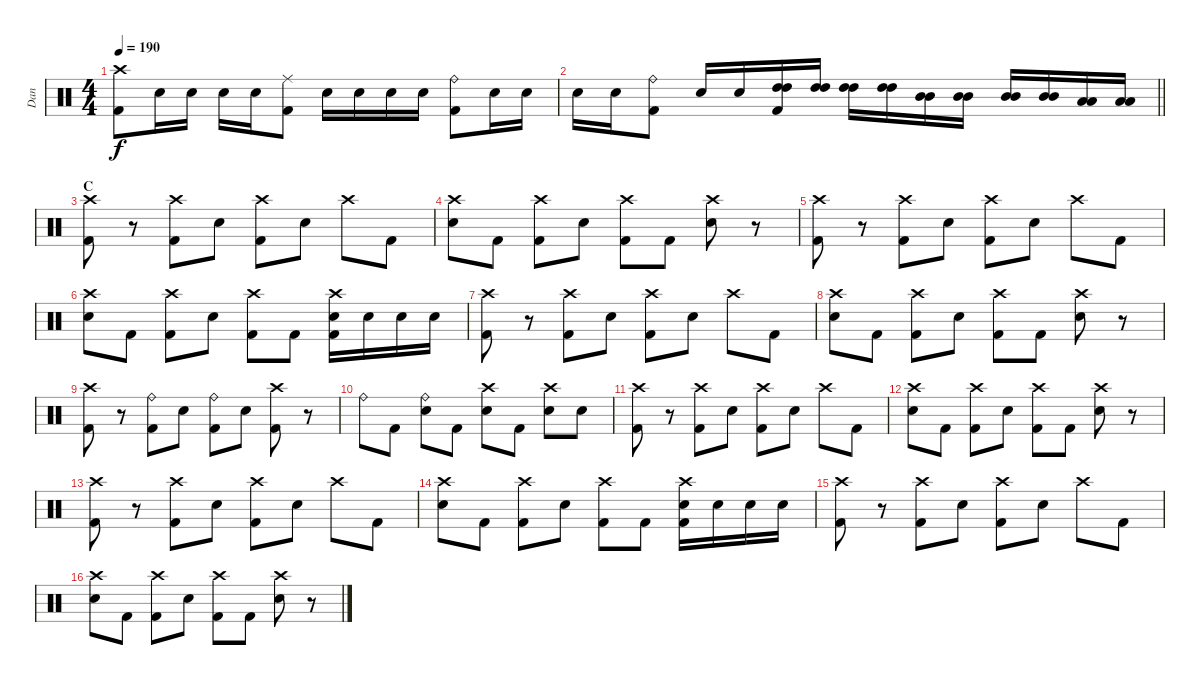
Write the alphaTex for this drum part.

\track ("Dan" "Dan") {instrument percussion}
\staff {score}
\articulation defaults
\ts (4 4)
\tempo 190
\clef neutral
\ks c
("Crash high (hit)" "Kick (hit) 2").8{dy f} "Electric Snare (hit)".16 "Electric Snare (hit)".16 "Electric Snare (hit)".16 "Electric Snare (hit)".16 ("Ride (middle)" "Kick (hit) 2").8 "Electric Snare (hit)".16 "Electric Snare (hit)".16 "Electric Snare (hit)".16 "Electric Snare (hit)".16 ("Ride (bell)" "Kick (hit) 2").8 "Electric Snare (hit)".16 "Electric Snare (hit)".16 |
\barLineRight lightlight "Electric Snare (hit)".16 "Electric Snare (hit)".16
("Ride (bell)" "Kick (hit) 2").8 "Electric Snare (hit)".16 "Electric Snare (hit)".16 ("High Tom (hit)" "High Tom (hit)" "Kick (hit) 2").16 ("High Tom (hit)" "High Tom (hit)").16 ("High Tom (hit)" "High Tom (hit)").16 ("High Tom (hit)" "High Tom (hit)").16 ("Mid Tom (hit)" "Mid Tom (hit)").16 ("Mid Tom (hit)" "Mid Tom (hit)").16 ("Mid Tom (hit)" "Mid Tom (hit)").16 ("Mid Tom (hit)" "Mid Tom (hit)").16 ("Low Tom (hit)" "Low Tom (hit)").16 ("Low Tom (hit)" "Low Tom (hit)").16 |
\section ("" "C")
("Crash high (hit)" "Kick (hit) 2").8 r.8 ("Crash high (hit)" "Kick (hit) 2").8 "Electric Snare (hit)".8 ("Crash high (hit)" "Kick (hit) 2").8 "Electric Snare (hit)".8 "Crash high (hit)".8 "Kick (hit) 2".8 |
("Crash high (hit)" "Electric Snare (hit)").8 "Kick (hit) 2".8 ("Crash high (hit)" "Kick (hit) 2").8 "Electric Snare (hit)".8 ("Crash high (hit)" "Kick (hit) 2").8 "Kick (hit) 2".8 ("Crash high (hit)" "Electric Snare (hit)").8 r.8 |
("Crash high (hit)" "Kick (hit) 2").8 r.8 ("Crash high (hit)" "Kick (hit) 2").8 "Electric Snare (hit)".8 ("Crash high (hit)" "Kick (hit) 2").8 "Electric Snare (hit)".8 "Crash high (hit)".8 "Kick (hit) 2".8 |
("Crash high (hit)" "Electric Snare (hit)").8 "Kick (hit) 2".8 ("Crash high (hit)" "Kick (hit) 2").8 "Electric Snare (hit)".8 ("Crash high (hit)" "Kick (hit) 2").8 "Kick (hit) 2".8 ("Crash high (hit)" "Electric Snare (hit)" "Kick (hit) 2").16 "Electric Snare (hit)".16 "Electric Snare (hit)".16 "Electric Snare (hit)".16 |
("Crash high (hit)" "Kick (hit) 2").8 r.8 ("Crash high (hit)" "Kick (hit) 2").8 "Electric Snare (hit)".8 ("Crash high (hit)" "Kick (hit) 2").8 "Electric Snare (hit)".8 "Crash high (hit)".8 "Kick (hit) 2".8 |
("Crash high (hit)" "Electric Snare (hit)").8 "Kick (hit) 2".8 ("Crash high (hit)" "Kick (hit) 2").8 "Electric Snare (hit)".8 ("Crash high (hit)" "Kick (hit) 2").8 "Kick (hit) 2".8 ("Crash high (hit)" "Electric Snare (hit)").8 r.8 |
("Crash high (hit)" "Kick (hit) 2").8 r.8 ("Ride (bell)" "Kick (hit) 2").8 "Electric Snare (hit)".8 ("Ride (bell)" "Kick (hit) 2").8 "Electric Snare (hit)".8 ("Crash high (hit)" "Kick (hit) 2").8 r.8 |
"Ride (bell)".8 "Kick (hit) 2".8 ("Ride (bell)" "Electric Snare (hit)").8 "Kick (hit) 2".8 ("Crash high (hit)" "Electric Snare (hit)").8 "Kick (hit) 2".8 ("Crash high (hit)" "Electric Snare (hit)").8 "Electric Snare (hit)".8 |
("Crash high (hit)" "Kick (hit) 2").8 r.8 ("Crash high (hit)" "Kick (hit) 2").8 "Electric Snare (hit)".8 ("Crash high (hit)" "Kick (hit) 2").8 "Electric Snare (hit)".8 "Crash high (hit)".8 "Kick (hit) 2".8 |
("Crash high (hit)" "Electric Snare (hit)").8 "Kick (hit) 2".8 ("Crash high (hit)" "Kick (hit) 2").8 "Electric Snare (hit)".8 ("Crash high (hit)" "Kick (hit) 2").8 "Kick (hit) 2".8 ("Crash high (hit)" "Electric Snare (hit)").8 r.8 |
("Crash high (hit)" "Kick (hit) 2").8 r.8 ("Crash high (hit)" "Kick (hit) 2").8 "Electric Snare (hit)".8 ("Crash high (hit)" "Kick (hit) 2").8 "Electric Snare (hit)".8 "Crash high (hit)".8 "Kick (hit) 2".8 |
("Crash high (hit)" "Electric Snare (hit)").8 "Kick (hit) 2".8 ("Crash high (hit)" "Kick (hit) 2").8 "Electric Snare (hit)".8 ("Crash high (hit)" "Kick (hit) 2").8 "Kick (hit) 2".8 ("Crash high (hit)" "Electric Snare (hit)" "Kick (hit) 2").16 "Electric Snare (hit)".16 "Electric Snare (hit)".16 "Electric Snare (hit)".16 |
("Crash high (hit)" "Kick (hit) 2").8 r.8 ("Crash high (hit)" "Kick (hit) 2").8 "Electric Snare (hit)".8 ("Crash high (hit)" "Kick (hit) 2").8 "Electric Snare (hit)".8 "Crash high (hit)".8 "Kick (hit) 2".8 |
("Crash high (hit)" "Electric Snare (hit)").8 "Kick (hit) 2".8 ("Crash high (hit)" "Kick (hit) 2").8 "Electric Snare (hit)".8 ("Crash high (hit)" "Kick (hit) 2").8 "Kick (hit) 2".8 ("Crash high (hit)" "Electric Snare (hit)").8 r.8
